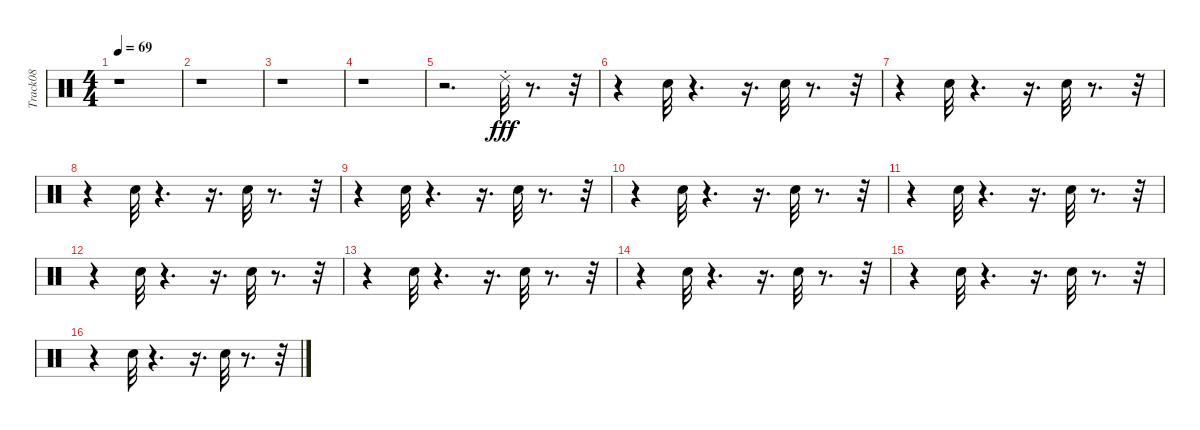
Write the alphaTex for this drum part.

\track ("Track08" "Track08") {instrument percussion}
\staff {score}
\articulation defaults
\ts (4 4)
\tempo 69
\clef neutral
\ks c
r.1{dy fff} |
r.1 |
r.1 |
r.1 |
r.2{d} "Ride (choke) 2".32 r.8{d} r.32 |
r.4 "Snare (hit) 2".32 r.4{d} r.16{d} "Snare (hit) 2".32 r.8{d} r.32 |
r.4 "Snare (hit) 2".32 r.4{d} r.16{d} "Snare (hit) 2".32 r.8{d} r.32 |
r.4 "Snare (hit) 2".32 r.4{d} r.16{d} "Snare (hit) 2".32 r.8{d} r.32 |
r.4 "Snare (hit) 2".32 r.4{d} r.16{d} "Snare (hit) 2".32 r.8{d} r.32 |
r.4 "Snare (hit) 2".32 r.4{d} r.16{d} "Snare (hit) 2".32 r.8{d} r.32 |
r.4 "Snare (hit) 2".32 r.4{d} r.16{d} "Snare (hit) 2".32 r.8{d} r.32 |
r.4 "Snare (hit) 2".32 r.4{d} r.16{d} "Snare (hit) 2".32 r.8{d} r.32 |
r.4 "Snare (hit) 2".32 r.4{d} r.16{d} "Snare (hit) 2".32 r.8{d} r.32 |
r.4 "Snare (hit) 2".32 r.4{d} r.16{d} "Snare (hit) 2".32 r.8{d} r.32 |
r.4 "Snare (hit) 2".32 r.4{d} r.16{d} "Snare (hit) 2".32 r.8{d} r.32 |
r.4 "Snare (hit) 2".32 r.4{d} r.16{d} "Snare (hit) 2".32 r.8{d} r.32
